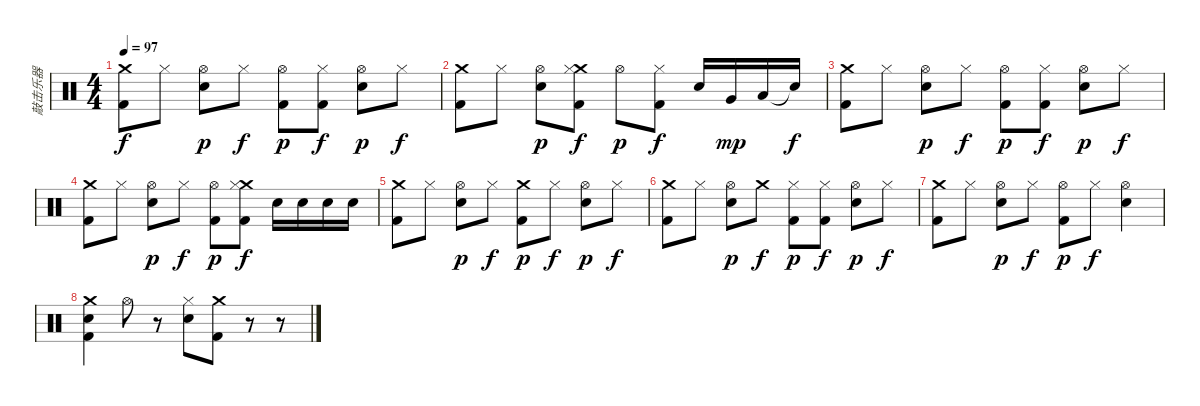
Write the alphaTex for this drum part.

\track ("敲击乐器" "敲击乐器") {instrument percussion}
\staff {score}
\articulation defaults
\ts (4 4)
\tempo 97
\clef neutral
\ks c
("Crash medium (hit)" "Kick (hit) 2").8{dy f} "Hi-Hat (closed)".8 ("Hi-Hat (open)" "Snare (hit) 2").8{dy p} "Hi-Hat (closed)".8{dy f} ("Hi-Hat (open)" "Kick (hit) 2").8{dy p} ("Hi-Hat (closed)" "Kick (hit) 2").8{dy f} ("Hi-Hat (open)" "Snare (hit) 2").8{dy p} "Hi-Hat (closed)".8{dy f} |
("Crash medium (hit)" "Kick (hit) 2").8 "Hi-Hat (closed)".8 ("Hi-Hat (open)" "Snare (hit) 2").8{dy p} ("Crash medium (hit)" "Hi-Hat (closed)" "Kick (hit) 2").8{dy f} "Hi-Hat (open)".8{dy p} ("Hi-Hat (closed)" "Kick (hit) 2").8{dy f} "Snare (hit) 2".16 "Very Low Tom (hit)".16{dy mp} "Low Floor Tom (hit)".16 "Snare (hit)"{t}.16{dy f} |
("Crash medium (hit)" "Kick (hit) 2").8 "Hi-Hat (closed)".8 ("Hi-Hat (open)" "Snare (hit) 2").8{dy p} "Hi-Hat (closed)".8{dy f} ("Hi-Hat (open)" "Kick (hit) 2").8{dy p} ("Hi-Hat (closed)" "Kick (hit) 2").8{dy f} ("Hi-Hat (open)" "Snare (hit) 2").8{dy p} "Hi-Hat (closed)".8{dy f} |
("Crash medium (hit)" "Kick (hit) 2").8 "Hi-Hat (closed)".8 ("Hi-Hat (open)" "Snare (hit) 2").8{dy p} "Hi-Hat (closed)".8{dy f} ("Hi-Hat (open)" "Kick (hit) 2").8{dy p} ("Crash medium (hit)" "Hi-Hat (closed)" "Kick (hit) 2").8{dy f} "Snare (hit) 2".16 "Snare (hit) 2".16 "Snare (hit) 2".16 "Snare (hit) 2".16 |
("Crash medium (hit)" "Kick (hit) 2").8 "Hi-Hat (closed)".8 ("Hi-Hat (open)" "Snare (hit) 2").8{dy p} "Hi-Hat (closed)".8{dy f} ("Crash medium (hit)" "Kick (hit) 2").8{dy p} "Hi-Hat (closed)".8{dy f} ("Hi-Hat (open)" "Snare (hit) 2").8{dy p} "Hi-Hat (closed)".8{dy f} |
("Crash medium (hit)" "Kick (hit) 2").8 "Hi-Hat (closed)".8 ("Hi-Hat (open)" "Snare (hit) 2").8{dy p} "Crash medium (hit)".8{dy f} ("Hi-Hat (closed)" "Kick (hit) 2").8{dy p} ("Hi-Hat (closed)" "Kick (hit) 2").8{dy f} ("Hi-Hat (open)" "Snare (hit) 2").8{dy p} "Hi-Hat (closed)".8{dy f} |
("Crash medium (hit)" "Kick (hit) 2").8 "Hi-Hat (closed)".8 ("Hi-Hat (open)" "Snare (hit) 2").8{dy p} "Hi-Hat (closed)".8{dy f} ("Hi-Hat (open)" "Kick (hit) 2").8{dy p} "Hi-Hat (closed)".8{dy f} ("Hi-Hat (open)" "Snare (hit) 2").4 |
("Crash medium (hit)" "Snare (hit) 2" "Kick (hit) 2").4 "Hi-Hat (open)".8 r.8 ("Hi-Hat (closed)" "Snare (hit) 2").8 ("Crash medium (hit)" "Kick (hit) 2").8 r.8 r.8
